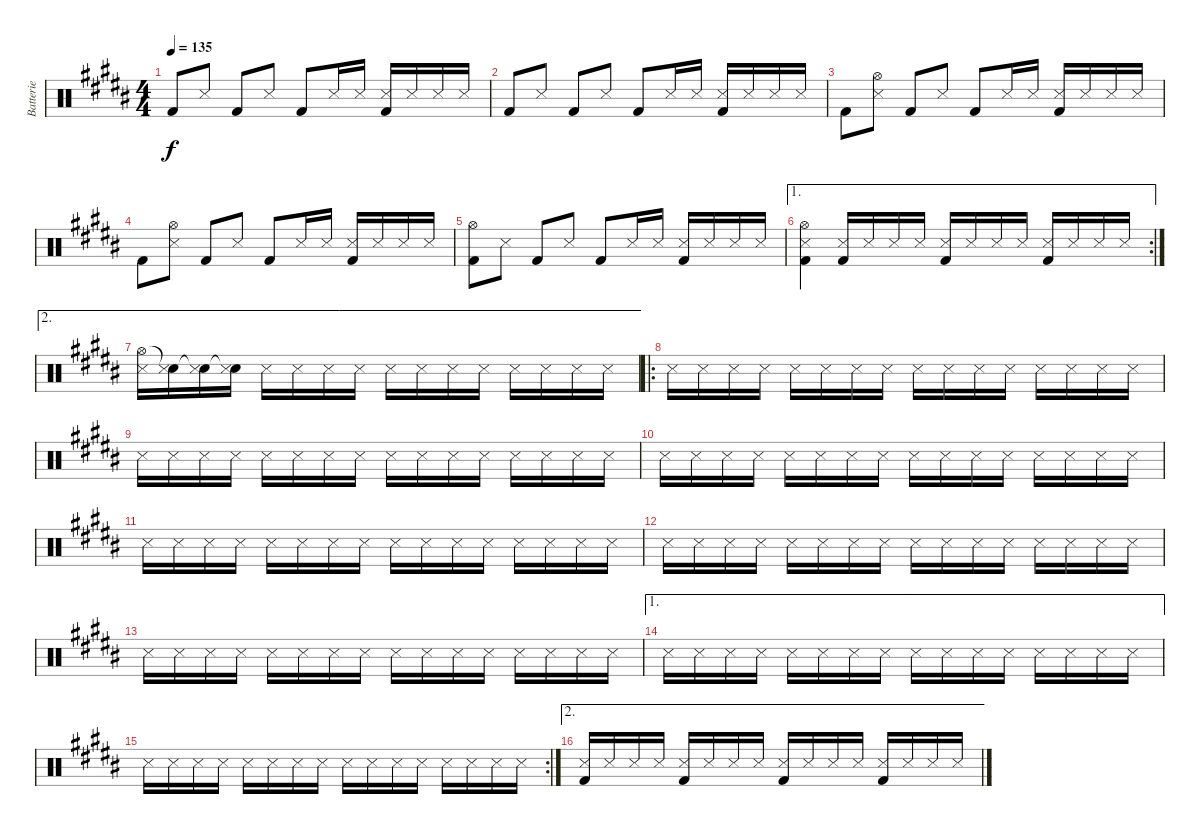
\track ("Batterie" "Batterie") {instrument percussion}
\staff {score}
\articulation defaults
\ts (4 4)
\tempo 135
\clef neutral
\ks b "Kick (hit) 2".8{dy f} "Snare (side stick) 3".8 "Kick (hit) 2".8 "Snare (side stick) 3".8 "Kick (hit) 2".8 "Snare (side stick) 3".16 "Snare (side stick) 3".16
("Snare (side stick) 3" "Kick (hit) 2").16 "Snare (side stick) 3".16 "Snare (side stick) 3".16 "Snare (side stick) 3".16 |
"Kick (hit) 2".8 "Snare (side stick) 3".8 "Kick (hit) 2".8 "Snare (side stick) 3".8 "Kick (hit) 2".8 "Snare (side stick) 3".16 "Snare (side stick) 3".16 ("Snare (side stick) 3" "Kick (hit) 2").16 "Snare (side stick) 3".16 "Snare (side stick) 3".16 "Snare (side stick) 3".16 |
"Kick (hit) 2".8 ("Hi-Hat (open)" "Snare (side stick) 3").8 "Kick (hit) 2".8 "Snare (side stick) 3".8 "Kick (hit) 2".8 "Snare (side stick) 3".16 "Snare (side stick) 3".16 ("Snare (side stick) 3" "Kick (hit) 2").16 "Snare (side stick) 3".16 "Snare (side stick) 3".16 "Snare (side stick) 3".16 |
"Kick (hit) 2".8 ("Hi-Hat (open)" "Snare (side stick) 3").8 "Kick (hit) 2".8 "Snare (side stick) 3".8 "Kick (hit) 2".8 "Snare (side stick) 3".16 "Snare (side stick) 3".16 ("Snare (side stick) 3" "Kick (hit) 2").16 "Snare (side stick) 3".16 "Snare (side stick) 3".16 "Snare (side stick) 3".16 |
("Hi-Hat (open)" "Kick (hit) 2").8 "Snare (side stick) 3".8 "Kick (hit) 2".8 "Snare (side stick) 3".8 "Kick (hit) 2".8 "Snare (side stick) 3".16 "Snare (side stick) 3".16 ("Snare (side stick) 3" "Kick (hit) 2").16 "Snare (side stick) 3".16 "Snare (side stick) 3".16 "Snare (side stick) 3".16 |
\ae 1
\rc 2
("Hi-Hat (open)" "Snare (side stick) 3" "Kick (hit) 2").4 ("Snare (side stick) 3" "Kick (hit) 2").16 "Snare (side stick) 3".16 "Snare (side stick) 3".16 "Snare (side stick) 3".16 ("Snare (side stick) 3" "Kick (hit) 2").16 "Snare (side stick) 3".16 "Snare (side stick) 3".16 "Snare (side stick) 3".16 ("Snare (side stick) 3" "Kick (hit) 2").16 "Snare (side stick) 3".16 "Snare (side stick) 3".16 "Snare (side stick) 3".16 |
\ae 2
("Hi-Hat (open)" "Snare (side stick) 3").16 ("Snare (hit)"{t} "Snare (side stick) 3").16 ("Snare (hit)"{t} "Snare (side stick) 3").16 ("Snare (hit)"{t} "Snare (side stick) 3").16 "Snare (side stick) 3".16 "Snare (side stick) 3".16 "Snare (side stick) 3".16 "Snare (side stick) 3".16 "Snare (side stick) 3".16 "Snare (side stick) 3".16 "Snare (side stick) 3".16 "Snare (side stick) 3".16 "Snare (side stick) 3".16 "Snare (side stick) 3".16 "Snare (side stick) 3".16 "Snare (side stick) 3".16 |
\ro "Snare (side stick) 3".16 "Snare (side stick) 3".16 "Snare (side stick) 3".16 "Snare (side stick) 3".16 "Snare (side stick) 3".16 "Snare (side stick) 3".16 "Snare (side stick) 3".16 "Snare (side stick) 3".16 "Snare (side stick) 3".16 "Snare (side stick) 3".16 "Snare (side stick) 3".16 "Snare (side stick) 3".16 "Snare (side stick) 3".16 "Snare (side stick) 3".16 "Snare (side stick) 3".16 "Snare (side stick) 3".16
|
"Snare (side stick) 3".16 "Snare (side stick) 3".16 "Snare (side stick) 3".16 "Snare (side stick) 3".16 "Snare (side stick) 3".16 "Snare (side stick) 3".16 "Snare (side stick) 3".16 "Snare (side stick) 3".16 "Snare (side stick) 3".16 "Snare (side stick) 3".16 "Snare (side stick) 3".16 "Snare (side stick) 3".16 "Snare (side stick) 3".16 "Snare (side stick) 3".16 "Snare (side stick) 3".16 "Snare (side stick) 3".16 |
"Snare (side stick) 3".16 "Snare (side stick) 3".16 "Snare (side stick) 3".16 "Snare (side stick) 3".16 "Snare (side stick) 3".16 "Snare (side stick) 3".16 "Snare (side stick) 3".16 "Snare (side stick) 3".16 "Snare (side stick) 3".16 "Snare (side stick) 3".16 "Snare (side stick) 3".16 "Snare (side stick) 3".16 "Snare (side stick) 3".16 "Snare (side stick) 3".16 "Snare (side stick) 3".16 "Snare (side stick) 3".16 |
"Snare (side stick) 3".16 "Snare (side stick) 3".16 "Snare (side stick) 3".16 "Snare (side stick) 3".16 "Snare (side stick) 3".16 "Snare (side stick) 3".16 "Snare (side stick) 3".16 "Snare (side stick) 3".16 "Snare (side stick) 3".16 "Snare (side stick) 3".16 "Snare (side stick) 3".16 "Snare (side stick) 3".16 "Snare (side stick) 3".16 "Snare (side stick) 3".16 "Snare (side stick) 3".16 "Snare (side stick) 3".16 |
"Snare (side stick) 3".16 "Snare (side stick) 3".16 "Snare (side stick) 3".16 "Snare (side stick) 3".16 "Snare (side stick) 3".16 "Snare (side stick) 3".16 "Snare (side stick) 3".16 "Snare (side stick) 3".16 "Snare (side stick) 3".16 "Snare (side stick) 3".16 "Snare (side stick) 3".16 "Snare (side stick) 3".16 "Snare (side stick) 3".16 "Snare (side stick) 3".16 "Snare (side stick) 3".16 "Snare (side stick) 3".16 |
"Snare (side stick) 3".16 "Snare (side stick) 3".16 "Snare (side stick) 3".16 "Snare (side stick) 3".16 "Snare (side stick) 3".16 "Snare (side stick) 3".16 "Snare (side stick) 3".16 "Snare (side stick) 3".16 "Snare (side stick) 3".16 "Snare (side stick) 3".16 "Snare (side stick) 3".16 "Snare (side stick) 3".16 "Snare (side stick) 3".16 "Snare (side stick) 3".16 "Snare (side stick) 3".16 "Snare (side stick) 3".16 |
\ae 1 "Snare (side stick) 3".16 "Snare (side stick) 3".16 "Snare (side stick) 3".16 "Snare (side stick) 3".16 "Snare (side stick) 3".16 "Snare (side stick) 3".16 "Snare (side stick) 3".16 "Snare (side stick) 3".16 "Snare (side stick) 3".16 "Snare (side stick) 3".16 "Snare (side stick) 3".16 "Snare (side stick) 3".16 "Snare (side stick) 3".16 "Snare (side stick) 3".16 "Snare (side stick) 3".16 "Snare (side stick) 3".16
|
\rc 2 "Snare (side stick) 3".16 "Snare (side stick) 3".16 "Snare (side stick) 3".16 "Snare (side stick) 3".16 "Snare (side stick) 3".16 "Snare (side stick) 3".16 "Snare (side stick) 3".16 "Snare (side stick) 3".16 "Snare (side stick) 3".16 "Snare (side stick) 3".16 "Snare (side stick) 3".16 "Snare (side stick) 3".16 "Snare (side stick) 3".16 "Snare (side stick) 3".16 "Snare (side stick) 3".16 "Snare (side stick) 3".16
|
\ae 2
("Snare (side stick) 3" "Kick (hit) 2").16 "Snare (side stick) 3".16 "Snare (side stick) 3".16 "Snare (side stick) 3".16 ("Snare (side stick) 3" "Kick (hit) 2").16 "Snare (side stick) 3".16 "Snare (side stick) 3".16 "Snare (side stick) 3".16 ("Snare (side stick) 3" "Kick (hit) 2").16 "Snare (side stick) 3".16 "Snare (side stick) 3".16 "Snare (side stick) 3".16 ("Snare (side stick) 3" "Kick (hit) 2").16 "Snare (side stick) 3".16 "Snare (side stick) 3".16 "Snare (side stick) 3".16
